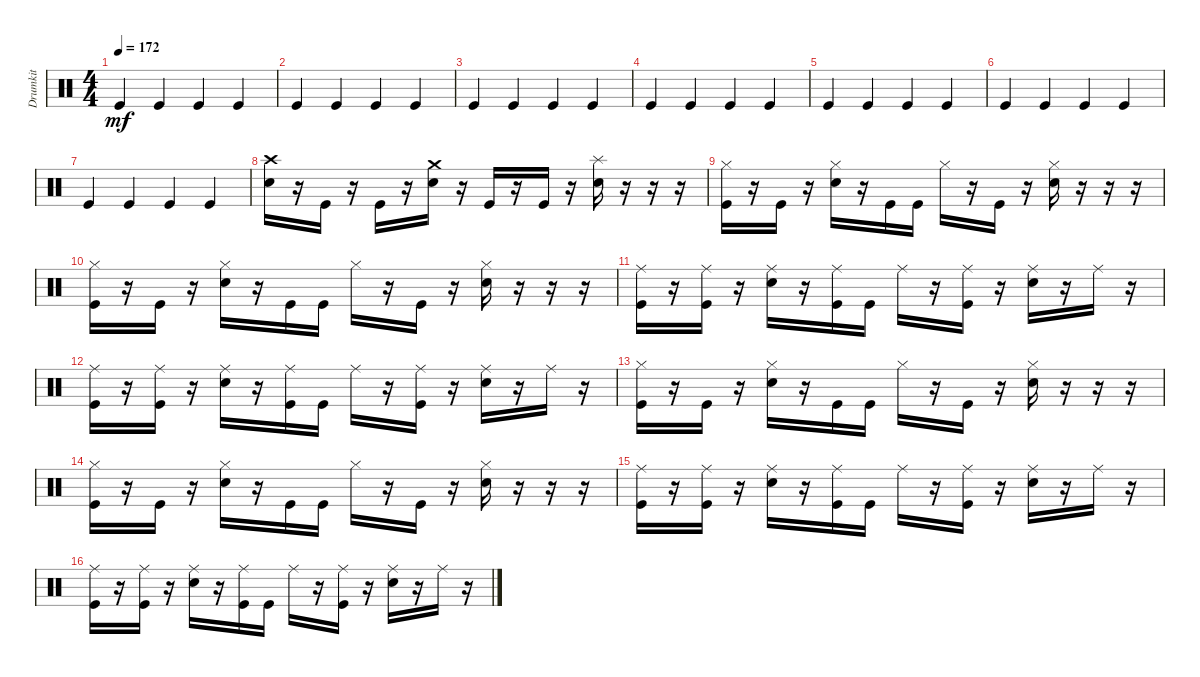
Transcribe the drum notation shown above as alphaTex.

\track ("Drumkit" "Drumkit") {instrument percussion}
\staff {score}
\articulation defaults
\ts (4 4)
\tempo 172
\clef neutral
\ks c "Kick (hit)".4{dy mf} "Kick (hit)".4 "Kick (hit)".4 "Kick (hit)".4
|
"Kick (hit)".4 "Kick (hit)".4 "Kick (hit)".4 "Kick (hit)".4 |
"Kick (hit)".4 "Kick (hit)".4 "Kick (hit)".4 "Kick (hit)".4 |
"Kick (hit)".4 "Kick (hit)".4 "Kick (hit)".4 "Kick (hit)".4 |
"Kick (hit)".4 "Kick (hit)".4 "Kick (hit)".4 "Kick (hit)".4 |
"Kick (hit)".4 "Kick (hit)".4 "Kick (hit)".4 "Kick (hit)".4 |
"Kick (hit)".4 "Kick (hit)".4 "Kick (hit)".4 "Kick (hit)".4 |
("Crash high (hit)" "Snare (hit) 2").16 r.16 "Kick (hit)".16 r.16 "Kick (hit)".16 r.16 ("Crash medium (hit)" "Snare (hit) 2").16 r.16 "Kick (hit)".16 r.16 "Kick (hit)".16 r.16 ("Snare (hit) 2" "Splash (hit)").16 r.16 r.16 r.16 |
("Hi-Hat (closed)" "Kick (hit)").16 r.16 "Kick (hit)".16 r.16 ("Hi-Hat (closed)" "Snare (hit) 2").16 r.16 "Kick (hit)".16 "Kick (hit)".16 "Hi-Hat (closed)".16 r.16 "Kick (hit)".16 r.16 ("Hi-Hat (closed)" "Snare (hit) 2").16 r.16 r.16 r.16 |
("Hi-Hat (closed)" "Kick (hit)").16 r.16 "Kick (hit)".16 r.16 ("Hi-Hat (closed)" "Snare (hit) 2").16 r.16 "Kick (hit)".16 "Kick (hit)".16 "Hi-Hat (closed)".16 r.16 "Kick (hit)".16 r.16 ("Hi-Hat (closed)" "Snare (hit) 2").16 r.16 r.16 r.16 |
("Kick (hit)" "Ride (middle)").16 r.16 ("Kick (hit)" "Ride (middle)").16 r.16 ("Snare (hit) 2" "Ride (middle)").16 r.16 ("Kick (hit)" "Ride (middle)").16 "Kick (hit)".16 "Ride (middle)".16 r.16 ("Kick (hit)" "Ride (middle)").16 r.16 ("Snare (hit) 2" "Ride (middle)").16 r.16 "Ride (middle)".16 r.16 |
("Kick (hit)" "Ride (middle)").16 r.16 ("Kick (hit)" "Ride (middle)").16 r.16 ("Snare (hit) 2" "Ride (middle)").16 r.16 ("Kick (hit)" "Ride (middle)").16 "Kick (hit)".16 "Ride (middle)".16 r.16 ("Kick (hit)" "Ride (middle)").16 r.16 ("Snare (hit) 2" "Ride (middle)").16 r.16 "Ride (middle)".16 r.16 |
("Hi-Hat (closed)" "Kick (hit)").16 r.16 "Kick (hit)".16 r.16 ("Hi-Hat (closed)" "Snare (hit) 2").16 r.16 "Kick (hit)".16 "Kick (hit)".16 "Hi-Hat (closed)".16 r.16 "Kick (hit)".16 r.16 ("Hi-Hat (closed)" "Snare (hit) 2").16 r.16 r.16 r.16 |
("Hi-Hat (closed)" "Kick (hit)").16 r.16 "Kick (hit)".16 r.16 ("Hi-Hat (closed)" "Snare (hit) 2").16 r.16 "Kick (hit)".16 "Kick (hit)".16 "Hi-Hat (closed)".16 r.16 "Kick (hit)".16 r.16 ("Hi-Hat (closed)" "Snare (hit) 2").16 r.16 r.16 r.16 |
("Kick (hit)" "Ride (middle)").16 r.16 ("Kick (hit)" "Ride (middle)").16 r.16 ("Snare (hit) 2" "Ride (middle)").16 r.16 ("Kick (hit)" "Ride (middle)").16 "Kick (hit)".16 "Ride (middle)".16 r.16 ("Kick (hit)" "Ride (middle)").16 r.16 ("Snare (hit) 2" "Ride (middle)").16 r.16 "Ride (middle)".16 r.16 |
("Kick (hit)" "Ride (middle)").16 r.16 ("Kick (hit)" "Ride (middle)").16 r.16 ("Snare (hit) 2" "Ride (middle)").16 r.16 ("Kick (hit)" "Ride (middle)").16 "Kick (hit)".16 "Ride (middle)".16 r.16 ("Kick (hit)" "Ride (middle)").16 r.16 ("Snare (hit) 2" "Ride (middle)").16 r.16 "Ride (middle)".16 r.16
